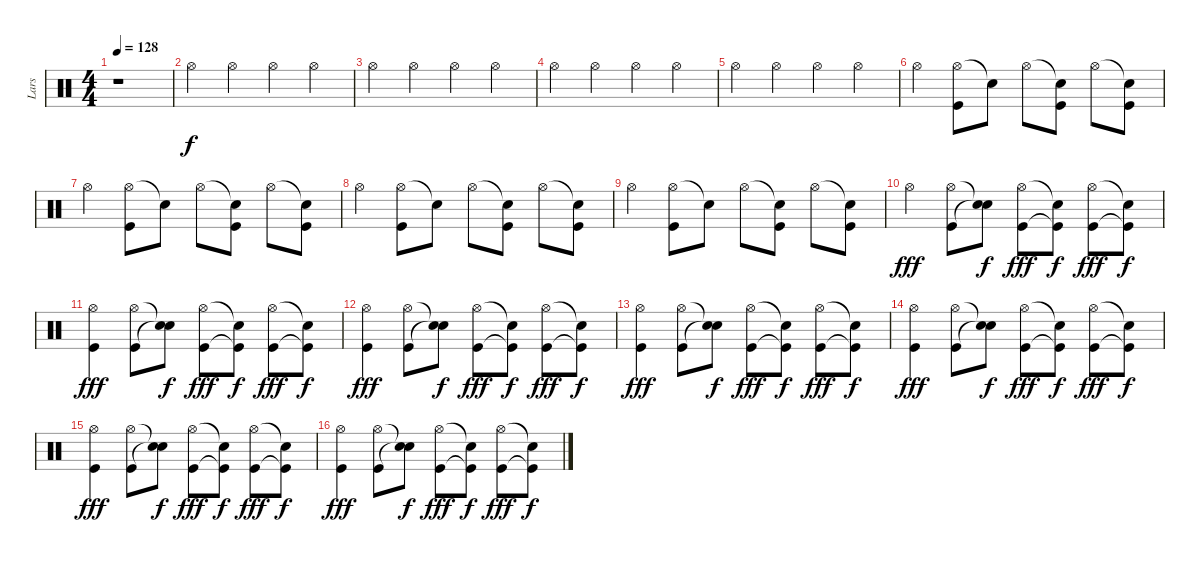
\track ("Lars" "Lars") {instrument percussion}
\staff {score}
\articulation defaults
\ts (4 4)
\tempo 128
\clef neutral
\ks c
r.1{dy f} |
"Hi-Hat (open)".4 "Hi-Hat (open)".4 "Hi-Hat (open)".4 "Hi-Hat (open)".4 |
"Hi-Hat (open)".4 "Hi-Hat (open)".4 "Hi-Hat (open)".4 "Hi-Hat (open)".4 |
"Hi-Hat (open)".4 "Hi-Hat (open)".4 "Hi-Hat (open)".4 "Hi-Hat (open)".4 |
"Hi-Hat (open)".4 "Hi-Hat (open)".4 "Hi-Hat (open)".4 "Hi-Hat (open)".4 |
"Hi-Hat (open)".4 ("Hi-Hat (open)" "Kick (hit)").8 "Snare (hit)"{t}.8 "Hi-Hat (open)".8 ("Snare (hit)"{t} "Kick (hit)").8 "Hi-Hat (open)".8 ("Snare (hit)"{t} "Kick (hit)").8 |
"Hi-Hat (open)".4 ("Hi-Hat (open)" "Kick (hit)").8 "Snare (hit)"{t}.8 "Hi-Hat (open)".8 ("Snare (hit)"{t} "Kick (hit)").8 "Hi-Hat (open)".8 ("Snare (hit)"{t} "Kick (hit)").8 |
"Hi-Hat (open)".4 ("Hi-Hat (open)" "Kick (hit)").8 "Snare (hit)"{t}.8 "Hi-Hat (open)".8 ("Snare (hit)"{t} "Kick (hit)").8 "Hi-Hat (open)".8 ("Snare (hit)"{t} "Kick (hit)").8 |
"Hi-Hat (open)".4 ("Hi-Hat (open)" "Kick (hit)").8 "Snare (hit)"{t}.8 "Hi-Hat (open)".8 ("Snare (hit)"{t} "Kick (hit)").8 "Hi-Hat (open)".8 ("Snare (hit)"{t} "Kick (hit)").8 |
"Hi-Hat (open)".4{dy fff} ("Hi-Hat (open)" "Kick (hit)").8 ("Snare (hit)"{t} "Snare (hit)"{t}).8{dy f} ("Hi-Hat (open)" "Kick (hit)").8{dy fff} ("Snare (hit)"{t} "Kick (hit)"{t}).8{dy f} ("Hi-Hat (open)" "Kick (hit)").8{dy fff} ("Snare (hit)"{t} "Kick (hit)"{t}).8{dy f} |
("Hi-Hat (open)" "Kick (hit)").4{dy fff} ("Hi-Hat (open)" "Kick (hit)").8 ("Snare (hit)"{t} "Snare (hit)"{t}).8{dy f} ("Hi-Hat (open)" "Kick (hit)").8{dy fff} ("Snare (hit)"{t} "Kick (hit)"{t}).8{dy f} ("Hi-Hat (open)" "Kick (hit)").8{dy fff} ("Snare (hit)"{t} "Kick (hit)"{t}).8{dy f} |
("Hi-Hat (open)" "Kick (hit)").4{dy fff} ("Hi-Hat (open)" "Kick (hit)").8 ("Snare (hit)"{t} "Snare (hit)"{t}).8{dy f} ("Hi-Hat (open)" "Kick (hit)").8{dy fff} ("Snare (hit)"{t} "Kick (hit)"{t}).8{dy f} ("Hi-Hat (open)" "Kick (hit)").8{dy fff} ("Snare (hit)"{t} "Kick (hit)"{t}).8{dy f} |
("Hi-Hat (open)" "Kick (hit)").4{dy fff} ("Hi-Hat (open)" "Kick (hit)").8 ("Snare (hit)"{t} "Snare (hit)"{t}).8{dy f} ("Hi-Hat (open)" "Kick (hit)").8{dy fff} ("Snare (hit)"{t} "Kick (hit)"{t}).8{dy f} ("Hi-Hat (open)" "Kick (hit)").8{dy fff} ("Snare (hit)"{t} "Kick (hit)"{t}).8{dy f} |
("Hi-Hat (open)" "Kick (hit)").4{dy fff} ("Hi-Hat (open)" "Kick (hit)").8 ("Snare (hit)"{t} "Snare (hit)"{t}).8{dy f} ("Hi-Hat (open)" "Kick (hit)").8{dy fff} ("Snare (hit)"{t} "Kick (hit)"{t}).8{dy f} ("Hi-Hat (open)" "Kick (hit)").8{dy fff} ("Snare (hit)"{t} "Kick (hit)"{t}).8{dy f} |
("Hi-Hat (open)" "Kick (hit)").4{dy fff} ("Hi-Hat (open)" "Kick (hit)").8 ("Snare (hit)"{t} "Snare (hit)"{t}).8{dy f} ("Hi-Hat (open)" "Kick (hit)").8{dy fff} ("Snare (hit)"{t} "Kick (hit)"{t}).8{dy f} ("Hi-Hat (open)" "Kick (hit)").8{dy fff} ("Snare (hit)"{t} "Kick (hit)"{t}).8{dy f} |
("Hi-Hat (open)" "Kick (hit)").4{dy fff} ("Hi-Hat (open)" "Kick (hit)").8 ("Snare (hit)"{t} "Snare (hit)"{t}).8{dy f} ("Hi-Hat (open)" "Kick (hit)").8{dy fff} ("Snare (hit)"{t} "Kick (hit)"{t}).8{dy f} ("Hi-Hat (open)" "Kick (hit)").8{dy fff} ("Snare (hit)"{t} "Kick (hit)"{t}).8{dy f}
